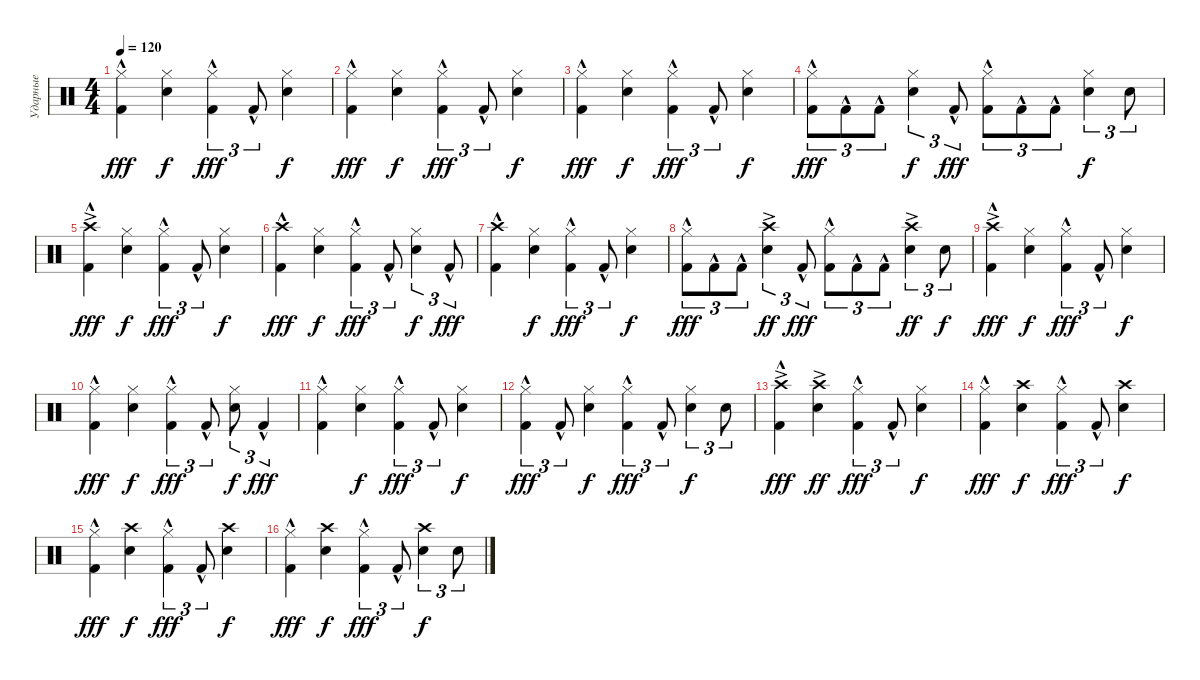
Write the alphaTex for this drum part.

\track ("Ударные" "Ударные") {instrument percussion}
\staff {score}
\articulation defaults
\ts (4 4)
\tempo 120
\clef neutral
\ks c
("Hi-Hat (closed)" "Kick (hit) 2"{hac}).4{dy fff} ("Hi-Hat (closed)" "Snare (hit) 2").4{dy f} ("Hi-Hat (closed)" "Kick (hit) 2"{hac}).4{tu (3 2) dy fff} "Kick (hit) 2"{hac}.8{tu (3 2)} ("Hi-Hat (closed)" "Snare (hit) 2").4{dy f} |
("Hi-Hat (closed)" "Kick (hit) 2"{hac}).4{dy fff} ("Hi-Hat (closed)" "Snare (hit) 2").4{dy f} ("Hi-Hat (closed)" "Kick (hit) 2"{hac}).4{tu (3 2) dy fff} "Kick (hit) 2"{hac}.8{tu (3 2)} ("Hi-Hat (closed)" "Snare (hit) 2").4{dy f} |
("Hi-Hat (closed)" "Kick (hit) 2"{hac}).4{dy fff} ("Hi-Hat (closed)" "Snare (hit) 2").4{dy f} ("Hi-Hat (closed)" "Kick (hit) 2"{hac}).4{tu (3 2) dy fff} "Kick (hit) 2"{hac}.8{tu (3 2)} ("Hi-Hat (closed)" "Snare (hit) 2").4{dy f} |
("Hi-Hat (closed)" "Kick (hit) 2"{hac}).8{tu (3 2) dy fff} "Kick (hit) 2"{hac}.8{tu (3 2)} "Kick (hit) 2"{hac}.8{tu (3 2)} ("Hi-Hat (closed)" "Snare (hit) 2").4{tu (3 2) dy f} "Kick (hit) 2"{hac}.8{tu (3 2) dy fff} ("Hi-Hat (closed)" "Kick (hit) 2"{hac}).8{tu (3 2)} "Kick (hit) 2"{hac}.8{tu (3 2)} "Kick (hit) 2"{hac}.8{tu (3 2)} ("Hi-Hat (closed)" "Snare (hit) 2").4{tu (3 2) dy f} "Snare (hit) 2".8{tu (3 2)} |
("Crash high (hit)"{ac} "Kick (hit) 2"{hac}).4{dy fff} ("Hi-Hat (closed)" "Snare (hit) 2").4{dy f} ("Hi-Hat (closed)" "Kick (hit) 2"{hac}).4{tu (3 2) dy fff} "Kick (hit) 2"{hac}.8{tu (3 2)} ("Hi-Hat (closed)" "Snare (hit) 2").4{dy f} |
("Crash high (hit)" "Kick (hit) 2"{hac}).4{dy fff} ("Hi-Hat (closed)" "Snare (hit) 2").4{dy f} ("Hi-Hat (closed)" "Kick (hit) 2"{hac}).4{tu (3 2) dy fff} "Kick (hit) 2"{hac}.8{tu (3 2)} ("Hi-Hat (closed)" "Snare (hit) 2").4{tu (3 2) dy f} "Kick (hit) 2"{hac}.8{tu (3 2) dy fff} |
("Crash high (hit)" "Kick (hit) 2"{hac}).4 ("Hi-Hat (closed)" "Snare (hit) 2").4{dy f} ("Hi-Hat (closed)" "Kick (hit) 2"{hac}).4{tu (3 2) dy fff} "Kick (hit) 2"{hac}.8{tu (3 2)} ("Hi-Hat (closed)" "Snare (hit) 2").4{dy f} |
("Hi-Hat (closed)" "Kick (hit) 2"{hac}).8{tu (3 2) dy fff} "Kick (hit) 2"{hac}.8{tu (3 2)} "Kick (hit) 2"{hac}.8{tu (3 2)} ("Crash high (hit)"{ac} "Snare (hit) 2").4{tu (3 2) dy ff} "Kick (hit) 2"{hac}.8{tu (3 2) dy fff} ("Hi-Hat (closed)" "Kick (hit) 2"{hac}).8{tu (3 2)} "Kick (hit) 2"{hac}.8{tu (3 2)} "Kick (hit) 2"{hac}.8{tu (3 2)} ("Crash high (hit)"{ac} "Snare (hit) 2").4{tu (3 2) dy ff} "Snare (hit) 2".8{tu (3 2) dy f} |
("Crash high (hit)"{ac} "Kick (hit) 2"{hac}).4{dy fff} ("Hi-Hat (closed)" "Snare (hit) 2").4{dy f} ("Hi-Hat (closed)" "Kick (hit) 2"{hac}).4{tu (3 2) dy fff} "Kick (hit) 2"{hac}.8{tu (3 2)} ("Hi-Hat (closed)" "Snare (hit) 2").4{dy f} |
("Hi-Hat (closed)" "Kick (hit) 2"{hac}).4{dy fff} ("Hi-Hat (closed)" "Snare (hit) 2").4{dy f} ("Hi-Hat (closed)" "Kick (hit) 2"{hac}).4{tu (3 2) dy fff} "Kick (hit) 2"{hac}.8{tu (3 2)} ("Hi-Hat (closed)" "Snare (hit) 2").8{tu (3 2) dy f} "Kick (hit) 2"{hac}.4{tu (3 2) dy fff} |
("Hi-Hat (closed)" "Kick (hit) 2"{hac}).4 ("Hi-Hat (closed)" "Snare (hit) 2").4{dy f} ("Hi-Hat (closed)" "Kick (hit) 2"{hac}).4{tu (3 2) dy fff} "Kick (hit) 2"{hac}.8{tu (3 2)} ("Hi-Hat (closed)" "Snare (hit) 2").4{dy f} |
("Hi-Hat (closed)" "Kick (hit) 2"{hac}).4{tu (3 2) dy fff} "Kick (hit) 2"{hac}.8{tu (3 2)} ("Hi-Hat (closed)" "Snare (hit) 2").4{dy f} ("Hi-Hat (closed)" "Kick (hit) 2"{hac}).4{tu (3 2) dy fff} "Kick (hit) 2"{hac}.8{tu (3 2)} ("Hi-Hat (closed)" "Snare (hit) 2").4{tu (3 2) dy f} "Snare (hit) 2".8{tu (3 2)} |
("Crash high (hit)"{ac} "Kick (hit) 2"{hac}).4{dy fff} ("Crash high (hit)"{ac} "Snare (hit) 2").4{dy ff} ("Hi-Hat (closed)" "Kick (hit) 2"{hac}).4{tu (3 2) dy fff} "Kick (hit) 2"{hac}.8{tu (3 2)} ("Hi-Hat (closed)" "Snare (hit) 2").4{dy f} |
("Hi-Hat (closed)" "Kick (hit) 2"{hac}).4{dy fff} ("Crash high (hit)" "Snare (hit) 2").4{dy f} ("Hi-Hat (closed)" "Kick (hit) 2"{hac}).4{tu (3 2) dy fff} "Kick (hit) 2"{hac}.8{tu (3 2)} ("Crash high (hit)" "Snare (hit) 2").4{dy f} |
("Hi-Hat (closed)" "Kick (hit) 2"{hac}).4{dy fff} ("Crash high (hit)" "Snare (hit) 2").4{dy f} ("Hi-Hat (closed)" "Kick (hit) 2"{hac}).4{tu (3 2) dy fff} "Kick (hit) 2"{hac}.8{tu (3 2)} ("Crash high (hit)" "Snare (hit) 2").4{dy f} |
("Hi-Hat (closed)" "Kick (hit) 2"{hac}).4{dy fff} ("Crash high (hit)" "Snare (hit) 2").4{dy f} ("Hi-Hat (closed)" "Kick (hit) 2"{hac}).4{tu (3 2) dy fff} "Kick (hit) 2"{hac}.8{tu (3 2)} ("Crash high (hit)" "Snare (hit) 2").4{tu (3 2) dy f} "Snare (hit) 2".8{tu (3 2)}
